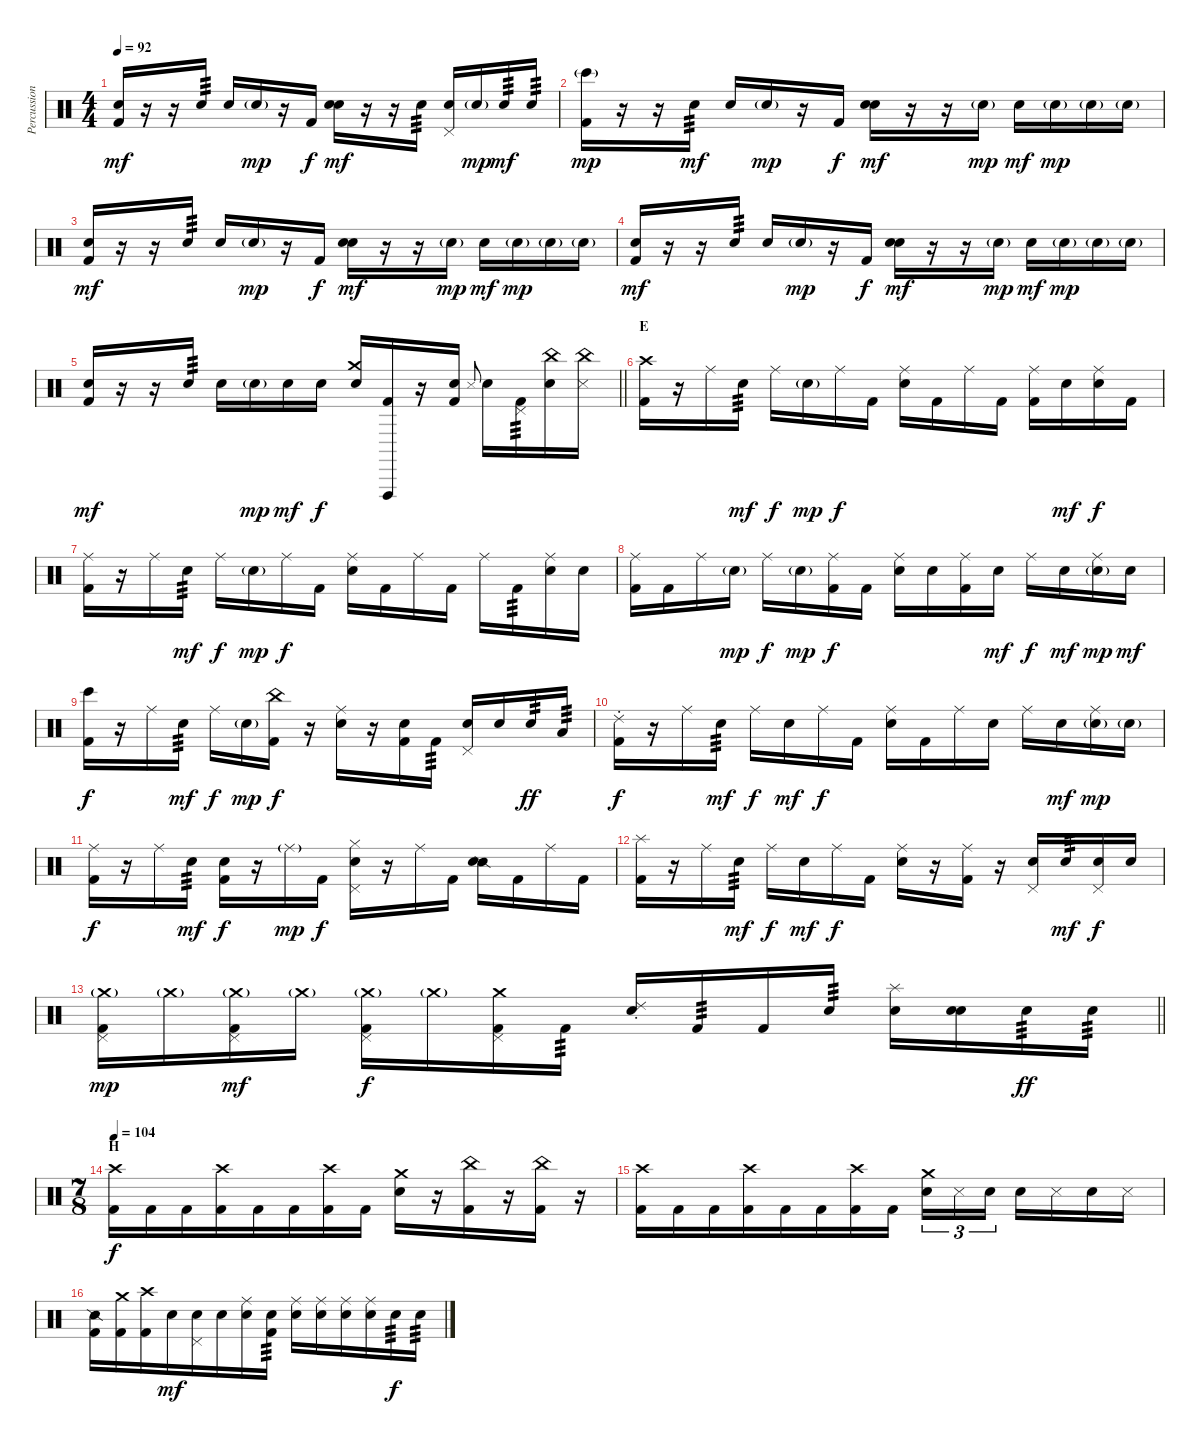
\track ("Percussion" "Percussion") {instrument percussion}
\staff {score}
\articulation defaults
\ts (4 4)
\tempo 92
\clef neutral
\ks c
("Snare (hit)" "Kick (hit) 2").16{dy mf} r.16 r.16 "Snare (hit) 2".16{tp 3} "Snare (hit)".16 "Snare (hit) 2"{g}.16{dy mp} r.16 "Kick (hit) 2".16{dy f} ("Snare (hit)" "Snare (hit) 2").16{dy mf} r.16 r.16 "Snare (hit) 2".16{tp 3} ("Pedal Hi-Hat (hit)" "Snare (hit) 2").16 "Snare (hit) 2"{g}.16{dy mp} "Snare (hit) 2".16{tp 3 dy mf} "Snare (hit) 2".16{tp 3} |
("Bongo High (hit)"{g} "Kick (hit) 2").16{dy mp} r.16 r.16 "Snare (hit) 2".16{tp 3 dy mf} "Snare (hit)".16 "Snare (hit) 2"{g}.16{dy mp} r.16 "Kick (hit) 2".16{dy f} ("Snare (hit)" "Snare (hit) 2").16{dy mf} r.16 r.16 "Snare (hit) 2"{g}.16{dy mp} "Snare (hit)".16{dy mf} "Snare (hit) 2"{g}.16{dy mp} "Snare (hit) 2"{g}.16 "Snare (hit) 2"{g}.16 |
("Snare (hit)" "Kick (hit) 2").16{dy mf} r.16 r.16 "Snare (hit) 2".16{tp 3} "Snare (hit)".16 "Snare (hit) 2"{g}.16{dy mp} r.16 "Kick (hit) 2".16{dy f} ("Snare (hit)" "Snare (hit) 2").16{dy mf} r.16 r.16 "Snare (hit) 2"{g}.16{dy mp} "Snare (hit)".16{dy mf} "Snare (hit) 2"{g}.16{dy mp} "Snare (hit) 2"{g}.16 "Snare (hit) 2"{g}.16 |
("Snare (hit)" "Kick (hit) 2").16{dy mf} r.16 r.16 "Snare (hit) 2".16{tp 3} "Snare (hit)".16 "Snare (hit) 2"{g}.16{dy mp} r.16 "Kick (hit) 2".16{dy f} ("Snare (hit)" "Snare (hit) 2").16{dy mf} r.16 r.16 "Snare (hit) 2"{g}.16{dy mp} "Snare (hit)".16{dy mf} "Snare (hit) 2"{g}.16{dy mp} "Snare (hit) 2"{g}.16 "Snare (hit) 2"{g}.16 |
\barLineRight lightlight
("Snare (hit)" "Kick (hit) 2").16{dy mf} r.16 r.16 "Snare (hit) 2".16{tp 3} "Snare (hit)".16 "Snare (hit) 2"{g}.16{dy mp} "Snare (hit) 2".16{dy mf} "Snare (hit) 2".16{dy f} ("Crash medium (hit)" "Snare (hit) 2").16 ("Vibraslap (hit)" "Kick (hit) 2").16 r.16 ("Snare (hit)" "Kick (hit) 2").16 "Metronome (hit)".8{gr onbeat} "Snare (hit) 2".16 ("Pedal Hi-Hat (hit)" "Kick (hit) 2").16{tp 3} ("China (hit)" "Snare (hit) 2").16 ("China (hit)" "Metronome (hit)").16 |
\section ("" "E")
("Crash high (hit)" "Kick (hit) 2").16 r.16 "Ride (middle)".16 "Snare (hit) 2".16{tp 3 dy mf} "Ride (middle)".16{dy f} "Snare (hit) 2"{g}.16{dy mp} "Ride (middle)".16{dy f} "Kick (hit) 2".16 ("Ride (middle)" "Snare (hit) 2").16 "Kick (hit) 2".16 "Ride (middle)".16 "Kick (hit) 2".16 ("Ride (middle)" "Kick (hit) 2").16 "Snare (hit) 2".16{dy mf} ("Ride (middle)" "Snare (hit) 2").16{dy f} "Kick (hit) 2".16 |
("Ride (middle)" "Kick (hit) 2").16 r.16 "Ride (middle)".16 "Snare (hit) 2".16{tp 3 dy mf} "Ride (middle)".16{dy f} "Snare (hit) 2"{g}.16{dy mp} "Ride (middle)".16{dy f} "Kick (hit) 2".16 ("Ride (middle)" "Snare (hit) 2").16 "Kick (hit) 2".16 "Ride (middle)".16 "Kick (hit) 2".16 "Ride (middle)".16 "Kick (hit) 2".16{tp 3} ("Ride (middle)" "Snare (hit) 2").16 "Snare (hit) 2".16 |
("Ride (middle)" "Kick (hit) 2").16 "Kick (hit) 2".16 "Ride (middle)".16 "Snare (hit) 2"{g}.16{dy mp} "Ride (middle)".16{dy f} "Snare (hit) 2"{g}.16{dy mp} ("Ride (middle)" "Kick (hit) 2").16{dy f} "Kick (hit) 2".16 ("Ride (middle)" "Snare (hit) 2").16 "Snare (hit) 2".16 ("Ride (middle)" "Kick (hit) 2").16 "Snare (hit) 2".16{dy mf} "Ride (middle)".16{dy f} "Snare (hit) 2".16{dy mf} ("Ride (middle)" "Snare (hit) 2"{g}).16{dy mp} "Snare (hit) 2".16{dy mf} |
("Bongo High (hit)" "Kick (hit) 2").16{dy f} r.16 "Ride (middle)".16 "Snare (hit) 2".16{tp 3 dy mf} "Ride (middle)".16{dy f} "Snare (hit) 2"{g}.16{dy mp} ("China (hit)" "Kick (hit) 2").16{dy f} r.16 ("Ride (middle)" "Snare (hit) 2").16 r.16 ("Snare (hit)" "Kick (hit) 2").16 "Kick (hit) 2".16{tp 3} ("Pedal Hi-Hat (hit)" "Snare (hit) 2").16 "Snare (hit) 2".16 "Snare (hit) 2".16{tp 3 dy ff} "Low Tom (hit)".16{tp 3} |
("Ride (choke) 2" "Kick (hit) 2").16{dy f} r.16 "Ride (middle)".16 "Snare (hit) 2".16{tp 3 dy mf} "Ride (middle)".16{dy f} "Snare (hit) 2".16{dy mf} "Ride (middle)".16{dy f} "Kick (hit) 2".16 ("Ride (middle)" "Snare (hit) 2").16 "Kick (hit) 2".16 "Ride (middle)".16 "Snare (hit) 2".16 "Ride (middle)".16 "Snare (hit) 2".16{dy mf} ("Ride (middle)" "Snare (hit) 2"{g}).16{dy mp} "Snare (hit) 2"{g}.16 |
("Ride (middle)" "Kick (hit) 2").16{dy f} r.16 "Ride (middle)".16 "Snare (hit) 2".16{tp 3 dy mf} ("Snare (hit)" "Kick (hit) 2").16{dy f} r.16 "Ride (middle)"{g}.16{dy mp} "Kick (hit) 2".16{dy f} ("Hi-Hat (closed)" "Pedal Hi-Hat (hit)" "Snare (hit) 2").16 r.16 "Ride (middle)".16 "Kick (hit) 2".16 ("Snare (side stick) 2" "Snare (hit) 2").16 "Kick (hit) 2".16 "Ride (middle)".16 "Kick (hit) 2".16 |
("Splash (hit)" "Kick (hit) 2").16 r.16 "Ride (middle)".16 "Snare (hit) 2".16{tp 3 dy mf} "Ride (middle)".16{dy f} "Snare (hit) 2".16{dy mf} "Ride (middle)".16{dy f} "Kick (hit) 2".16 ("Ride (middle)" "Snare (hit) 2").16 r.16 ("Ride (middle)" "Kick (hit) 2").16 r.16 ("Pedal Hi-Hat (hit)" "Snare (hit) 2").16 "Snare (hit) 2".16{tp 3 dy mf} ("Pedal Hi-Hat (hit)" "Snare (hit) 2").16{dy f} "Snare (hit) 2".16 |
\barLineRight lightlight
("Crash medium (hit)"{g} "Pedal Hi-Hat (hit)" "Kick (hit) 2").16{dy mp} "Crash medium (hit)"{g}.16 ("Crash medium (hit)"{g} "Pedal Hi-Hat (hit)" "Kick (hit) 2").16{dy mf} "Crash medium (hit)"{g}.16 ("Crash medium (hit)"{g} "Pedal Hi-Hat (hit)" "Kick (hit) 2").16{dy f} "Crash medium (hit)"{g}.16 ("Crash medium (hit)" "Pedal Hi-Hat (hit)" "Kick (hit) 2").16 "Kick (hit) 2".16{tp 3} ("Ride (choke) 2" "Snare (hit) 2").16 "Kick (hit) 2".16{tp 3} "Kick (hit) 2".16 "Snare (hit) 2".16{tp 3} ("Splash (hit)" "Snare (hit) 2").16 ("Snare (hit)" "Snare (hit) 2").16 "Snare (hit) 2".16{tp 3 dy ff} "Snare (hit) 2".16{tp 3} |
\ts (7 8)
\section ("" "H")
\tempo 104
("Crash high (hit)" "Kick (hit) 2").16{dy f} "Kick (hit) 2".16 "Kick (hit) 2".16 ("Crash high (hit)" "Kick (hit) 2").16 "Kick (hit) 2".16 "Kick (hit) 2".16 ("Crash high (hit)" "Kick (hit) 2").16 "Kick (hit) 2".16 ("Crash medium (hit)" "Snare (hit) 2").16 r.16 ("China (hit)" "Kick (hit) 2").16 r.16 ("China (hit)" "Kick (hit) 2").16 r.16 |
("Crash high (hit)" "Kick (hit) 2").16 "Kick (hit) 2".16 "Kick (hit) 2".16 ("Crash high (hit)" "Kick (hit) 2").16 "Kick (hit) 2".16 "Kick (hit) 2".16 ("Crash high (hit)" "Kick (hit) 2").16 "Kick (hit) 2".16 ("Crash medium (hit)" "Snare (hit) 2").16{tu (3 2)} "Metronome (hit)".16{tu (3 2)} "Snare (hit) 2".16{tu (3 2)} "Snare (hit) 2".16 "Metronome (hit)".16 "Snare (hit) 2".16 "Metronome (hit)".16 |
("Snare (side stick) 2" "Kick (hit) 2").16 ("Crash medium (hit)" "Kick (hit) 2").16 ("Crash high (hit)" "Kick (hit) 2").16 "Snare (hit) 2".16{dy mf} ("Pedal Hi-Hat (hit)" "Snare (hit) 2").16 "Snare (hit) 2".16 ("Ride (middle)" "Snare (hit) 2").16 ("Snare (hit) 2" "Kick (hit) 2").16{tp 3} ("Ride (middle)" "Snare (hit) 2").16 ("Ride (middle)" "Snare (hit) 2").16 ("Ride (middle)" "Snare (hit) 2").16 ("Ride (middle)" "Snare (hit) 2").16 "Snare (hit) 2".16{tp 3 dy f} "Snare (hit) 2".16{tp 3}
